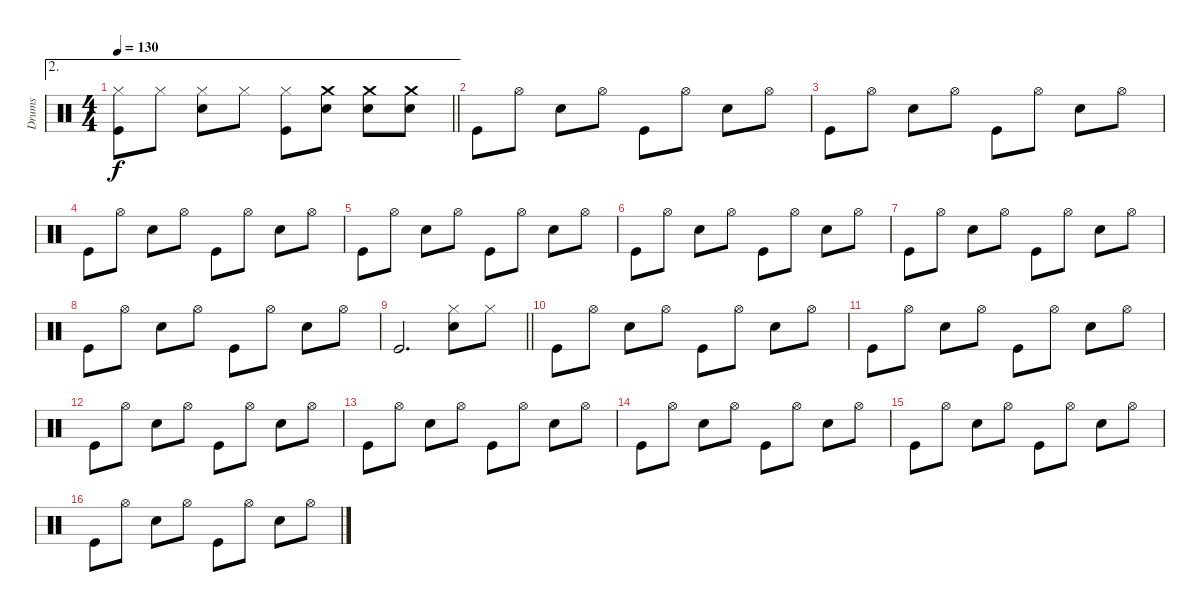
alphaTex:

\track ("Drums" "Drums") {instrument percussion}
\staff {score}
\articulation defaults
\ae 2
\ts (4 4)
\tempo 130
\clef neutral
\barLineRight lightlight
\ks c
("Hi-Hat (closed)" "Kick (hit)").8{dy f} "Hi-Hat (closed)".8 ("Hi-Hat (closed)" "Snare (hit) 2").8 "Hi-Hat (closed)".8 ("Hi-Hat (closed)" "Kick (hit)").8 ("Crash medium (hit)" "Snare (hit) 2").8 ("Crash medium (hit)" "Snare (hit) 2").8 ("Crash medium (hit)" "Snare (hit) 2").8 |
\section ("" "")
"Kick (hit)".8 "Hi-Hat (open)".8 "Snare (hit) 2".8 "Hi-Hat (open)".8 "Kick (hit)".8 "Hi-Hat (open)".8 "Snare (hit) 2".8 "Hi-Hat (open)".8 |
"Kick (hit)".8 "Hi-Hat (open)".8 "Snare (hit) 2".8 "Hi-Hat (open)".8 "Kick (hit)".8 "Hi-Hat (open)".8 "Snare (hit) 2".8 "Hi-Hat (open)".8 |
"Kick (hit)".8 "Hi-Hat (open)".8 "Snare (hit) 2".8 "Hi-Hat (open)".8 "Kick (hit)".8 "Hi-Hat (open)".8 "Snare (hit) 2".8 "Hi-Hat (open)".8 |
"Kick (hit)".8 "Hi-Hat (open)".8 "Snare (hit) 2".8 "Hi-Hat (open)".8 "Kick (hit)".8 "Hi-Hat (open)".8 "Snare (hit) 2".8 "Hi-Hat (open)".8 |
"Kick (hit)".8 "Hi-Hat (open)".8 "Snare (hit) 2".8 "Hi-Hat (open)".8 "Kick (hit)".8 "Hi-Hat (open)".8 "Snare (hit) 2".8 "Hi-Hat (open)".8 |
"Kick (hit)".8 "Hi-Hat (open)".8 "Snare (hit) 2".8 "Hi-Hat (open)".8 "Kick (hit)".8 "Hi-Hat (open)".8 "Snare (hit) 2".8 "Hi-Hat (open)".8 |
"Kick (hit)".8 "Hi-Hat (open)".8 "Snare (hit) 2".8 "Hi-Hat (open)".8 "Kick (hit)".8 "Hi-Hat (open)".8 "Snare (hit) 2".8 "Hi-Hat (open)".8 |
\barLineRight lightlight "Kick (hit)".2{d}
("Hi-Hat (closed)" "Snare (hit) 2").8 "Hi-Hat (closed)".8 |
"Kick (hit)".8 "Hi-Hat (open)".8 "Snare (hit) 2".8 "Hi-Hat (open)".8 "Kick (hit)".8 "Hi-Hat (open)".8 "Snare (hit) 2".8 "Hi-Hat (open)".8 |
"Kick (hit)".8 "Hi-Hat (open)".8 "Snare (hit) 2".8 "Hi-Hat (open)".8 "Kick (hit)".8 "Hi-Hat (open)".8 "Snare (hit) 2".8 "Hi-Hat (open)".8 |
"Kick (hit)".8 "Hi-Hat (open)".8 "Snare (hit) 2".8 "Hi-Hat (open)".8 "Kick (hit)".8 "Hi-Hat (open)".8 "Snare (hit) 2".8 "Hi-Hat (open)".8 |
"Kick (hit)".8 "Hi-Hat (open)".8 "Snare (hit) 2".8 "Hi-Hat (open)".8 "Kick (hit)".8 "Hi-Hat (open)".8 "Snare (hit) 2".8 "Hi-Hat (open)".8 |
"Kick (hit)".8 "Hi-Hat (open)".8 "Snare (hit) 2".8 "Hi-Hat (open)".8 "Kick (hit)".8 "Hi-Hat (open)".8 "Snare (hit) 2".8 "Hi-Hat (open)".8 |
"Kick (hit)".8 "Hi-Hat (open)".8 "Snare (hit) 2".8 "Hi-Hat (open)".8 "Kick (hit)".8 "Hi-Hat (open)".8 "Snare (hit) 2".8 "Hi-Hat (open)".8 |
"Kick (hit)".8 "Hi-Hat (open)".8 "Snare (hit) 2".8 "Hi-Hat (open)".8 "Kick (hit)".8 "Hi-Hat (open)".8 "Snare (hit) 2".8 "Hi-Hat (open)".8
